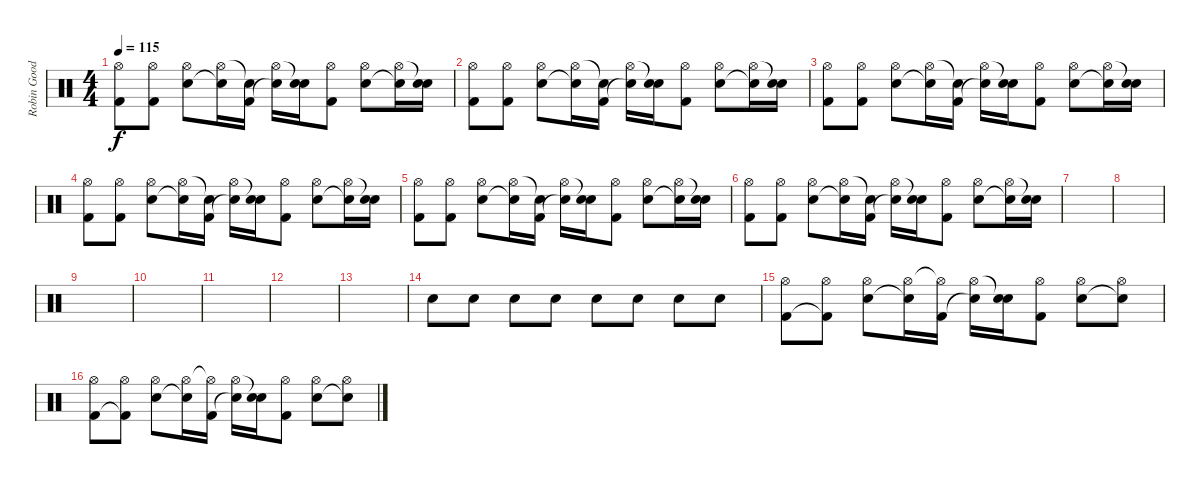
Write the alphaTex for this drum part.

\track ("Robin Goodridge" "Robin Good") {instrument percussion}
\staff {score}
\articulation defaults
\ts (4 4)
\tempo 115
\clef neutral
\ks c
("Hi-Hat (open)" "Kick (hit) 2").8{dy f} ("Hi-Hat (open)" "Kick (hit) 2").8 ("Hi-Hat (open)" "Snare (hit) 2").8 ("Hi-Hat (open)" "Snare (hit)"{t}).16 ("Snare (hit)"{t} "Kick (hit) 2").16 ("Hi-Hat (open)" "Snare (hit)"{t}).16 ("Snare (hit)"{t} "Snare (hit) 2").16 ("Hi-Hat (open)" "Kick (hit) 2").8 ("Hi-Hat (open)" "Snare (hit) 2").8 ("Hi-Hat (open)" "Snare (hit) 2"{t}).16 ("Snare (hit)"{t} "Snare (hit) 2").16 |
("Hi-Hat (open)" "Kick (hit) 2").8 ("Hi-Hat (open)" "Kick (hit) 2").8 ("Hi-Hat (open)" "Snare (hit) 2").8 ("Hi-Hat (open)" "Snare (hit)"{t}).16 ("Snare (hit)"{t} "Kick (hit) 2").16 ("Hi-Hat (open)" "Snare (hit)"{t}).16 ("Snare (hit)"{t} "Snare (hit) 2").16 ("Hi-Hat (open)" "Kick (hit) 2").8 ("Hi-Hat (open)" "Snare (hit) 2").8 ("Hi-Hat (open)" "Snare (hit) 2"{t}).16 ("Snare (hit)"{t} "Snare (hit) 2").16 |
("Hi-Hat (open)" "Kick (hit) 2").8 ("Hi-Hat (open)" "Kick (hit) 2").8 ("Hi-Hat (open)" "Snare (hit) 2").8 ("Hi-Hat (open)" "Snare (hit)"{t}).16 ("Snare (hit)"{t} "Kick (hit) 2").16 ("Hi-Hat (open)" "Snare (hit)"{t}).16 ("Snare (hit)"{t} "Snare (hit) 2").16 ("Hi-Hat (open)" "Kick (hit) 2").8 ("Hi-Hat (open)" "Snare (hit) 2").8 ("Hi-Hat (open)" "Snare (hit) 2"{t}).16 ("Snare (hit)"{t} "Snare (hit) 2").16 |
("Hi-Hat (open)" "Kick (hit) 2").8 ("Hi-Hat (open)" "Kick (hit) 2").8 ("Hi-Hat (open)" "Snare (hit) 2").8 ("Hi-Hat (open)" "Snare (hit)"{t}).16 ("Snare (hit)"{t} "Kick (hit) 2").16 ("Hi-Hat (open)" "Snare (hit)"{t}).16 ("Snare (hit)"{t} "Snare (hit) 2").16 ("Hi-Hat (open)" "Kick (hit) 2").8 ("Hi-Hat (open)" "Snare (hit) 2").8 ("Hi-Hat (open)" "Snare (hit) 2"{t}).16 ("Snare (hit)"{t} "Snare (hit) 2").16 |
("Hi-Hat (open)" "Kick (hit) 2").8 ("Hi-Hat (open)" "Kick (hit) 2").8 ("Hi-Hat (open)" "Snare (hit) 2").8 ("Hi-Hat (open)" "Snare (hit)"{t}).16 ("Snare (hit)"{t} "Kick (hit) 2").16 ("Hi-Hat (open)" "Snare (hit)"{t}).16 ("Snare (hit)"{t} "Snare (hit) 2").16 ("Hi-Hat (open)" "Kick (hit) 2").8 ("Hi-Hat (open)" "Snare (hit) 2").8 ("Hi-Hat (open)" "Snare (hit) 2"{t}).16 ("Snare (hit)"{t} "Snare (hit) 2").16 |
("Hi-Hat (open)" "Kick (hit) 2").8 ("Hi-Hat (open)" "Kick (hit) 2").8 ("Hi-Hat (open)" "Snare (hit) 2").8 ("Hi-Hat (open)" "Snare (hit)"{t}).16 ("Snare (hit)"{t} "Kick (hit) 2").16 ("Hi-Hat (open)" "Snare (hit)"{t}).16 ("Snare (hit)"{t} "Snare (hit) 2").16 ("Hi-Hat (open)" "Kick (hit) 2").8 ("Hi-Hat (open)" "Snare (hit) 2").8 ("Hi-Hat (open)" "Snare (hit) 2"{t}).16 ("Snare (hit)"{t} "Snare (hit) 2").16 |
|
|
|
|
|
|
|
"Snare (hit) 2".8{volume 13} "Snare (hit) 2".8 "Snare (hit) 2".8 "Snare (hit) 2".8 "Snare (hit) 2".8 "Snare (hit) 2".8 "Snare (hit) 2".8 "Snare (hit) 2".8 |
("Hi-Hat (open)" "Kick (hit) 2").8 ("Hi-Hat (open)" "Kick (hit) 2"{t}).8 ("Hi-Hat (open)" "Snare (hit) 2").8 ("Hi-Hat (open)" "Snare (hit)"{t}).16 ("Hi-Hat (open)"{t} "Kick (hit) 2").16 ("Hi-Hat (open)" "Snare (hit)"{t}).16 ("Snare (hit)"{t} "Snare (hit) 2").16 ("Hi-Hat (open)" "Kick (hit) 2").8 ("Hi-Hat (open)" "Snare (hit) 2").8 ("Hi-Hat (open)" "Snare (hit) 2"{t}).8 |
("Hi-Hat (open)" "Kick (hit) 2").8 ("Hi-Hat (open)" "Kick (hit) 2"{t}).8 ("Hi-Hat (open)" "Snare (hit) 2").8 ("Hi-Hat (open)" "Snare (hit)"{t}).16 ("Hi-Hat (open)"{t} "Kick (hit) 2").16 ("Hi-Hat (open)" "Snare (hit)"{t}).16 ("Snare (hit)"{t} "Snare (hit) 2").16 ("Hi-Hat (open)" "Kick (hit) 2").8 ("Hi-Hat (open)" "Snare (hit) 2").8 ("Hi-Hat (open)" "Snare (hit) 2"{t}).8
